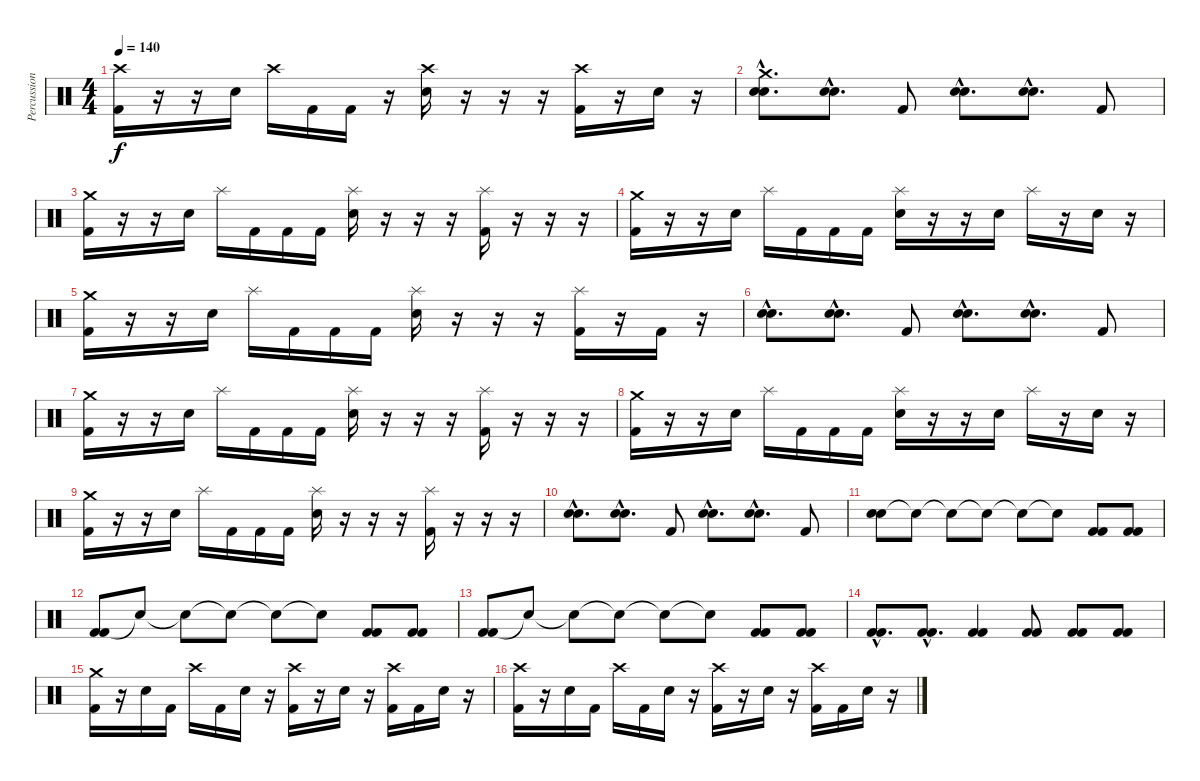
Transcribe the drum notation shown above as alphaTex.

\track ("Percussion" "Percussion") {instrument percussion}
\staff {score}
\articulation defaults
\ts (4 4)
\tempo 140
\clef neutral
\ks c
("Crash high (hit)" "Kick (hit) 2").16{dy f} r.16 r.16 "Electric Snare (hit)".16 "Crash high (hit)".16 "Kick (hit) 2".16 "Kick (hit) 2".16 r.16 ("Crash high (hit)" "Electric Snare (hit)").16 r.16 r.16 r.16 ("Crash high (hit)" "Kick (hit) 2").16 r.16 "Electric Snare (hit)".16 r.16 |
("Crash medium (hit)"{hac} "Electric Snare (hit)"{hac} "Electric Snare (hit)"{hac}).8{d} ("Electric Snare (hit)"{hac} "Electric Snare (hit)"{hac}).8{d} "Kick (hit) 2".8 ("Electric Snare (hit)"{hac} "Electric Snare (hit)"{hac}).8{d} ("Electric Snare (hit)"{hac} "Electric Snare (hit)"{hac}).8{d} "Kick (hit) 2".8 |
("Crash medium (hit)" "Kick (hit) 2").16 r.16 r.16 "Electric Snare (hit)".16 "Splash (hit)".16 "Kick (hit) 2".16 "Kick (hit) 2".16 "Kick (hit) 2".16 ("Splash (hit)" "Electric Snare (hit)").16 r.16 r.16 r.16 ("Splash (hit)" "Kick (hit) 2").16 r.16 r.16 r.16 |
("Crash medium (hit)" "Kick (hit) 2").16 r.16 r.16 "Electric Snare (hit)".16 "Splash (hit)".16 "Kick (hit) 2".16 "Kick (hit) 2".16 "Kick (hit) 2".16 ("Splash (hit)" "Electric Snare (hit)").16 r.16 r.16 "Electric Snare (hit)".16 "Splash (hit)".16 r.16 "Electric Snare (hit)".16 r.16 |
("Crash medium (hit)" "Kick (hit) 2").16 r.16 r.16 "Electric Snare (hit)".16 "Splash (hit)".16 "Kick (hit) 2".16 "Kick (hit) 2".16 "Kick (hit) 2".16 ("Splash (hit)" "Electric Snare (hit)").16 r.16 r.16 r.16 ("Splash (hit)" "Kick (hit) 2").16 r.16 "Kick (hit) 2".16 r.16 |
("Electric Snare (hit)"{hac} "Electric Snare (hit)"{hac}).8{d} ("Electric Snare (hit)"{hac} "Electric Snare (hit)"{hac}).8{d} "Kick (hit) 2".8 ("Electric Snare (hit)"{hac} "Electric Snare (hit)"{hac}).8{d} ("Electric Snare (hit)"{hac} "Electric Snare (hit)"{hac}).8{d} "Kick (hit) 2".8 |
("Crash medium (hit)" "Kick (hit) 2").16 r.16 r.16 "Electric Snare (hit)".16 "Splash (hit)".16 "Kick (hit) 2".16 "Kick (hit) 2".16 "Kick (hit) 2".16 ("Splash (hit)" "Electric Snare (hit)").16 r.16 r.16 r.16 ("Splash (hit)" "Kick (hit) 2").16 r.16 r.16 r.16 |
("Crash medium (hit)" "Kick (hit) 2").16 r.16 r.16 "Electric Snare (hit)".16 "Splash (hit)".16 "Kick (hit) 2".16 "Kick (hit) 2".16 "Kick (hit) 2".16 ("Splash (hit)" "Electric Snare (hit)").16 r.16 r.16 "Electric Snare (hit)".16 "Splash (hit)".16 r.16 "Electric Snare (hit)".16 r.16 |
("Crash medium (hit)" "Kick (hit) 2").16 r.16 r.16 "Electric Snare (hit)".16 "Splash (hit)".16 "Kick (hit) 2".16 "Kick (hit) 2".16 "Kick (hit) 2".16 ("Splash (hit)" "Electric Snare (hit)").16 r.16 r.16 r.16 ("Splash (hit)" "Kick (hit) 2").16 r.16 r.16 r.16 |
("Electric Snare (hit)"{hac} "Electric Snare (hit)"{hac}).8{d} ("Electric Snare (hit)"{hac} "Electric Snare (hit)"{hac}).8{d} "Kick (hit) 2".8 ("Electric Snare (hit)"{hac} "Electric Snare (hit)"{hac}).8{d} ("Electric Snare (hit)"{hac} "Electric Snare (hit)"{hac}).8{d} "Kick (hit) 2".8 |
("Electric Snare (hit)" "Electric Snare (hit)").8 "Snare (hit)"{t}.8 "Snare (hit)"{t}.8 "Snare (hit)"{t}.8 "Snare (hit)"{t}.8 "Snare (hit)"{t}.8 ("Kick (hit) 2" "Kick (hit) 2").8 ("Kick (hit) 2" "Kick (hit) 2").8 |
("Kick (hit) 2" "Kick (hit) 2").8 "Snare (hit)"{t}.8 "Snare (hit)"{t}.8 "Snare (hit)"{t}.8 "Snare (hit)"{t}.8 "Snare (hit)"{t}.8 ("Kick (hit) 2" "Kick (hit) 2").8 ("Kick (hit) 2" "Kick (hit) 2").8 |
("Kick (hit) 2" "Kick (hit) 2").8 "Snare (hit)"{t}.8 "Snare (hit)"{t}.8 "Snare (hit)"{t}.8 "Snare (hit)"{t}.8 "Snare (hit)"{t}.8 ("Kick (hit) 2" "Kick (hit) 2").8 ("Kick (hit) 2" "Kick (hit) 2").8 |
("Kick (hit) 2"{hac} "Kick (hit) 2"{hac}).8{d} ("Kick (hit) 2"{hac} "Kick (hit) 2"{hac}).8{d} ("Kick (hit) 2" "Kick (hit) 2").4 ("Kick (hit) 2" "Kick (hit) 2").8 ("Kick (hit) 2" "Kick (hit) 2").8 ("Kick (hit) 2" "Kick (hit) 2").8 |
("Crash medium (hit)" "Kick (hit) 2").16 r.16 "Electric Snare (hit)".16 "Kick (hit) 2".16 "Crash high (hit)".16 "Kick (hit) 2".16 "Electric Snare (hit)".16 r.16 ("Crash high (hit)" "Kick (hit) 2").16 r.16 "Electric Snare (hit)".16 r.16 ("Crash high (hit)" "Kick (hit) 2").16 "Kick (hit) 2".16 "Electric Snare (hit)".16 r.16 |
("Crash high (hit)" "Kick (hit) 2").16 r.16 "Electric Snare (hit)".16 "Kick (hit) 2".16 "Crash high (hit)".16 "Kick (hit) 2".16 "Electric Snare (hit)".16 r.16 ("Crash high (hit)" "Kick (hit) 2").16 r.16 "Electric Snare (hit)".16 r.16 ("Crash high (hit)" "Kick (hit) 2").16 "Kick (hit) 2".16 "Electric Snare (hit)".16 r.16
